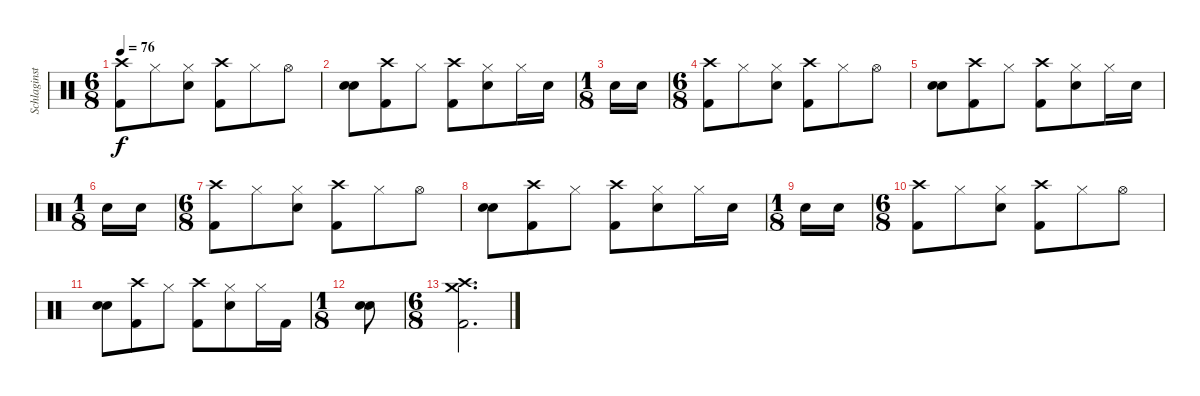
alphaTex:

\track ("Schlaginstrumente - Auswahl" "Schlaginst") {instrument percussion}
\staff {score}
\articulation defaults
\ts (6 8)
\tempo 76
\clef neutral
\ks c
("Crash high (hit)" "Kick (hit) 2").8{dy f} "Hi-Hat (closed)".8 ("Hi-Hat (closed)" "Snare (hit) 2").8 ("Crash high (hit)" "Kick (hit) 2").8 "Hi-Hat (closed)".8 "Hi-Hat (open)".8 |
("Snare (hit) 2" "Snare (hit) 2").8{bd 240} ("Crash high (hit)" "Kick (hit) 2").8 "Hi-Hat (closed)".8 ("Crash high (hit)" "Kick (hit) 2").8 ("Hi-Hat (closed)" "Snare (hit) 2").8 "Hi-Hat (closed)".16 "Snare (hit) 2".16 |
\ts (1 8)
"Snare (hit) 2".16 "Snare (hit) 2".16 |
\ts (6 8)
("Crash high (hit)" "Kick (hit) 2").8 "Hi-Hat (closed)".8 ("Hi-Hat (closed)" "Snare (hit) 2").8 ("Crash high (hit)" "Kick (hit) 2").8 "Hi-Hat (closed)".8 "Hi-Hat (open)".8 |
("Snare (hit) 2" "Snare (hit) 2").8{bd 240} ("Crash high (hit)" "Kick (hit) 2").8 "Hi-Hat (closed)".8 ("Crash high (hit)" "Kick (hit) 2").8 ("Hi-Hat (closed)" "Snare (hit) 2").8 "Hi-Hat (closed)".16 "Snare (hit) 2".16 |
\ts (1 8)
"Snare (hit) 2".16 "Snare (hit) 2".16 |
\ts (6 8)
("Crash high (hit)" "Kick (hit) 2").8 "Hi-Hat (closed)".8 ("Hi-Hat (closed)" "Snare (hit) 2").8 ("Crash high (hit)" "Kick (hit) 2").8 "Hi-Hat (closed)".8 "Hi-Hat (open)".8 |
("Snare (hit) 2" "Snare (hit) 2").8{bd 240} ("Crash high (hit)" "Kick (hit) 2").8 "Hi-Hat (closed)".8 ("Crash high (hit)" "Kick (hit) 2").8 ("Hi-Hat (closed)" "Snare (hit) 2").8 "Hi-Hat (closed)".16 "Snare (hit) 2".16 |
\ts (1 8)
"Snare (hit) 2".16 "Snare (hit) 2".16 |
\ts (6 8)
("Crash high (hit)" "Kick (hit) 2").8 "Hi-Hat (closed)".8 ("Hi-Hat (closed)" "Snare (hit) 2").8 ("Crash high (hit)" "Kick (hit) 2").8 "Hi-Hat (closed)".8 "Hi-Hat (open)".8 |
("Snare (hit) 2" "Snare (hit) 2").8{bd 240} ("Crash high (hit)" "Kick (hit) 2").8 "Hi-Hat (closed)".8 ("Crash high (hit)" "Kick (hit) 2").8 ("Hi-Hat (closed)" "Snare (hit) 2").8 "Hi-Hat (closed)".16 "Kick (hit) 2".16 |
\ts (1 8)
("Snare (hit) 2" "Snare (hit) 2").8{bd 240} |
\ts (6 8)
("Crash medium (hit)" "Crash high (hit)" "Kick (hit) 2").2{d}
